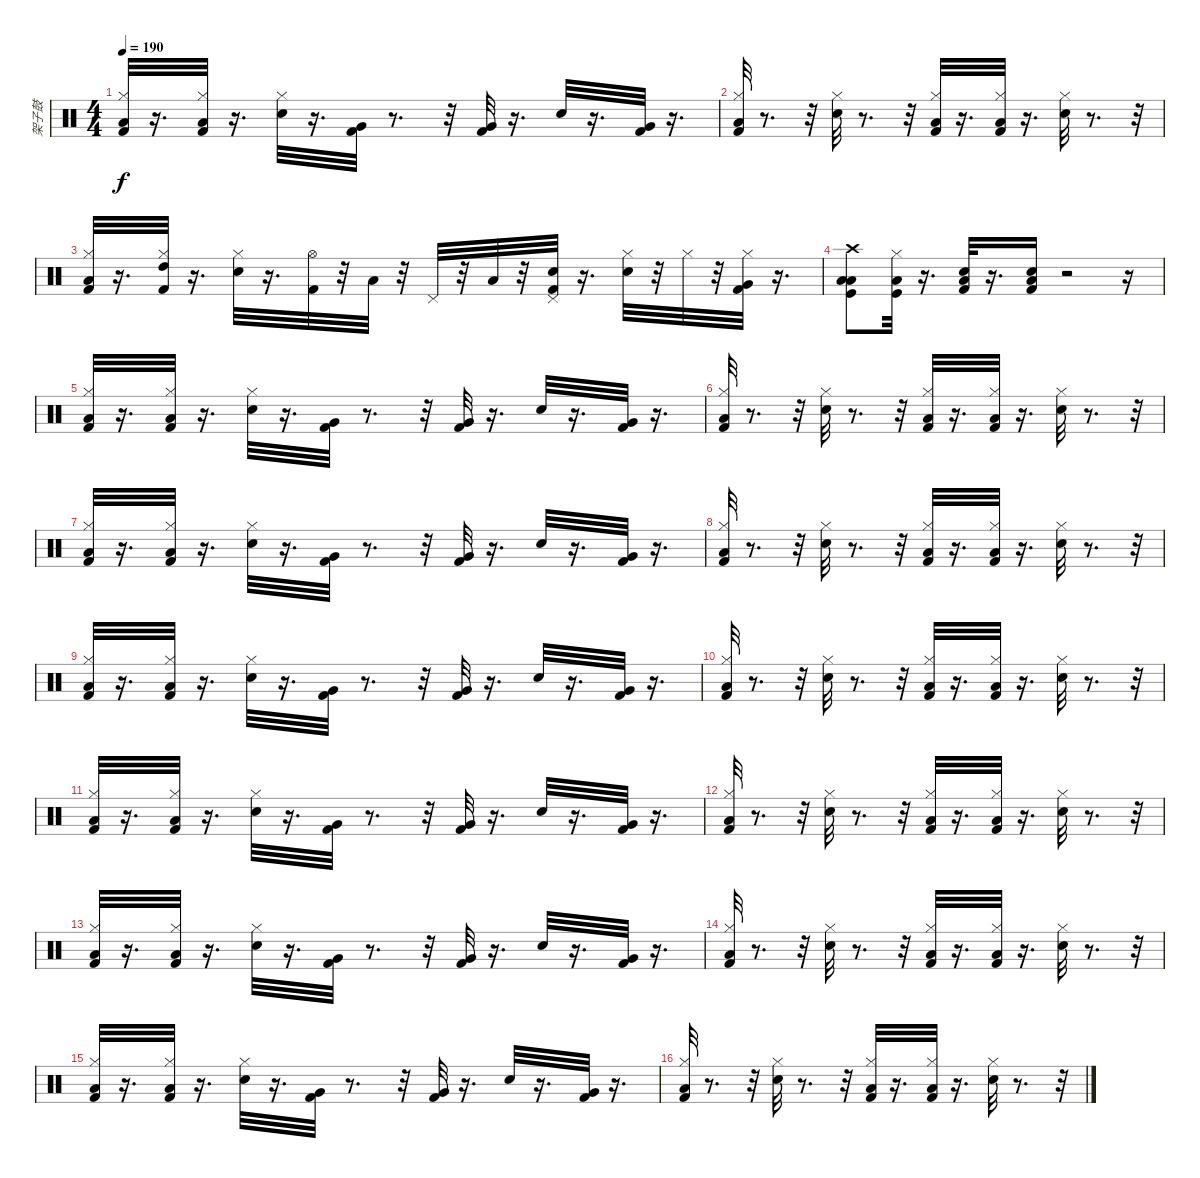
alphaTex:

\track ("架子鼓" "架子鼓") {instrument percussion}
\staff {score}
\articulation defaults
\ts (4 4)
\tempo 190
\clef neutral
\ks c
("Kick (hit) 2" "Hi-Hat (closed)" "Low Floor Tom (hit)").32{dy f} r.16{d} ("Kick (hit) 2" "Hi-Hat (closed)" "Low Floor Tom (hit)").32 r.16{d} ("Hi-Hat (closed)" "Electric Snare (hit)").32 r.16{d} ("Kick (hit) 2" "Very Low Tom (hit)").32 r.8{d} r.32 ("Kick (hit) 2" "Very Low Tom (hit)").32 r.16{d} "Snare (hit) 2".32 r.16{d} ("Kick (hit) 2" "Very Low Tom (hit)").32 r.16{d} |
("Kick (hit) 2" "Hi-Hat (closed)" "Low Floor Tom (hit)").32 r.8{d} r.32 ("Hi-Hat (closed)" "Electric Snare (hit)").32 r.8{d} r.32 ("Kick (hit) 2" "Hi-Hat (closed)" "Low Floor Tom (hit)").32 r.16{d} ("Kick (hit) 2" "Hi-Hat (closed)" "Low Floor Tom (hit)").32 r.16{d} ("Hi-Hat (closed)" "Electric Snare (hit)").32 r.8{d} r.32 |
("Kick (hit) 2" "Hi-Hat (closed)" "Low Floor Tom (hit)").32 r.16{d} ("High Tom (hit)" "Kick (hit) 2" "Hi-Hat (closed)").32 r.16{d} ("Hi-Hat (closed)" "Electric Snare (hit)").32 r.16{d} ("Kick (hit) 2" "Hi-Hat (open)").32 r.32 "Low Floor Tom (hit)".32 r.32 "Pedal Hi-Hat (hit)".32 r.32 "Low Floor Tom (hit)".32 r.32 ("Pedal Hi-Hat (hit)" "Kick (hit) 2" "Snare (hit) 2").32 r.16{d} ("Hi-Hat (closed)" "Snare (hit) 2").32 r.32 "Hi-Hat (closed)".32 r.32 ("Hi-Hat (closed)" "Kick (hit) 2" "Very Low Tom (hit)").32 r.16{d} |
("Low Tom (hit)" "Kick (hit)" "Low Floor Tom (hit)" "Crash high (hit)").8 ("Kick (hit)" "Low Tom (hit)" "Hi-Hat (closed)").32 r.16{d} ("Kick (hit) 2" "Low Tom (hit)" "Electric Snare (hit)").32 r.16{d} ("Kick (hit) 2" "Electric Snare (hit)" "Low Tom (hit)").16 r.2 r.16 |
("Kick (hit) 2" "Hi-Hat (closed)" "Low Floor Tom (hit)").32 r.16{d} ("Kick (hit) 2" "Hi-Hat (closed)" "Low Floor Tom (hit)").32 r.16{d} ("Hi-Hat (closed)" "Electric Snare (hit)").32 r.16{d} ("Kick (hit) 2" "Very Low Tom (hit)").32 r.8{d} r.32 ("Kick (hit) 2" "Very Low Tom (hit)").32 r.16{d} "Snare (hit) 2".32 r.16{d} ("Kick (hit) 2" "Very Low Tom (hit)").32 r.16{d} |
("Kick (hit) 2" "Hi-Hat (closed)" "Low Floor Tom (hit)").32 r.8{d} r.32 ("Hi-Hat (closed)" "Electric Snare (hit)").32 r.8{d} r.32 ("Kick (hit) 2" "Hi-Hat (closed)" "Low Floor Tom (hit)").32 r.16{d} ("Kick (hit) 2" "Hi-Hat (closed)" "Low Floor Tom (hit)").32 r.16{d} ("Hi-Hat (closed)" "Electric Snare (hit)").32 r.8{d} r.32 |
("Kick (hit) 2" "Hi-Hat (closed)" "Low Floor Tom (hit)").32 r.16{d} ("Kick (hit) 2" "Hi-Hat (closed)" "Low Floor Tom (hit)").32 r.16{d} ("Hi-Hat (closed)" "Electric Snare (hit)").32 r.16{d} ("Kick (hit) 2" "Very Low Tom (hit)").32 r.8{d} r.32 ("Kick (hit) 2" "Very Low Tom (hit)").32 r.16{d} "Snare (hit) 2".32 r.16{d} ("Kick (hit) 2" "Very Low Tom (hit)").32 r.16{d} |
("Kick (hit) 2" "Hi-Hat (closed)" "Low Floor Tom (hit)").32 r.8{d} r.32 ("Hi-Hat (closed)" "Electric Snare (hit)").32 r.8{d} r.32 ("Kick (hit) 2" "Hi-Hat (closed)" "Low Floor Tom (hit)").32 r.16{d} ("Kick (hit) 2" "Hi-Hat (closed)" "Low Floor Tom (hit)").32 r.16{d} ("Electric Snare (hit)" "Hi-Hat (closed)").32 r.8{d} r.32 |
("Kick (hit) 2" "Hi-Hat (closed)" "Low Floor Tom (hit)").32 r.16{d} ("Kick (hit) 2" "Hi-Hat (closed)" "Low Floor Tom (hit)").32 r.16{d} ("Hi-Hat (closed)" "Electric Snare (hit)").32 r.16{d} ("Kick (hit) 2" "Very Low Tom (hit)").32 r.8{d} r.32 ("Kick (hit) 2" "Very Low Tom (hit)").32 r.16{d} "Snare (hit) 2".32 r.16{d} ("Kick (hit) 2" "Very Low Tom (hit)").32 r.16{d} |
("Kick (hit) 2" "Hi-Hat (closed)" "Low Floor Tom (hit)").32 r.8{d} r.32 ("Hi-Hat (closed)" "Electric Snare (hit)").32 r.8{d} r.32 ("Kick (hit) 2" "Hi-Hat (closed)" "Low Floor Tom (hit)").32 r.16{d} ("Kick (hit) 2" "Hi-Hat (closed)" "Low Floor Tom (hit)").32 r.16{d} ("Hi-Hat (closed)" "Electric Snare (hit)").32 r.8{d} r.32 |
("Kick (hit) 2" "Hi-Hat (closed)" "Low Floor Tom (hit)").32 r.16{d} ("Kick (hit) 2" "Hi-Hat (closed)" "Low Floor Tom (hit)").32 r.16{d} ("Hi-Hat (closed)" "Electric Snare (hit)").32 r.16{d} ("Kick (hit) 2" "Very Low Tom (hit)").32 r.8{d} r.32 ("Kick (hit) 2" "Very Low Tom (hit)").32 r.16{d} "Snare (hit) 2".32 r.16{d} ("Kick (hit) 2" "Very Low Tom (hit)").32 r.16{d} |
("Kick (hit) 2" "Hi-Hat (closed)" "Low Floor Tom (hit)").32 r.8{d} r.32 ("Hi-Hat (closed)" "Electric Snare (hit)").32 r.8{d} r.32 ("Kick (hit) 2" "Hi-Hat (closed)" "Low Floor Tom (hit)").32 r.16{d} ("Kick (hit) 2" "Hi-Hat (closed)" "Low Floor Tom (hit)").32 r.16{d} ("Hi-Hat (closed)" "Electric Snare (hit)").32 r.8{d} r.32 |
("Kick (hit) 2" "Hi-Hat (closed)" "Low Floor Tom (hit)").32 r.16{d} ("Kick (hit) 2" "Hi-Hat (closed)" "Low Floor Tom (hit)").32 r.16{d} ("Hi-Hat (closed)" "Electric Snare (hit)").32 r.16{d} ("Kick (hit) 2" "Very Low Tom (hit)").32 r.8{d} r.32 ("Kick (hit) 2" "Very Low Tom (hit)").32 r.16{d} "Snare (hit) 2".32 r.16{d} ("Kick (hit) 2" "Very Low Tom (hit)").32 r.16{d} |
("Kick (hit) 2" "Hi-Hat (closed)" "Low Floor Tom (hit)").32 r.8{d} r.32 ("Hi-Hat (closed)" "Electric Snare (hit)").32 r.8{d} r.32 ("Kick (hit) 2" "Hi-Hat (closed)" "Low Floor Tom (hit)").32 r.16{d} ("Kick (hit) 2" "Hi-Hat (closed)" "Low Floor Tom (hit)").32 r.16{d} ("Hi-Hat (closed)" "Electric Snare (hit)").32 r.8{d} r.32 |
("Kick (hit) 2" "Hi-Hat (closed)" "Low Floor Tom (hit)").32 r.16{d} ("Kick (hit) 2" "Hi-Hat (closed)" "Low Floor Tom (hit)").32 r.16{d} ("Hi-Hat (closed)" "Electric Snare (hit)").32 r.16{d} ("Kick (hit) 2" "Very Low Tom (hit)").32 r.8{d} r.32 ("Kick (hit) 2" "Very Low Tom (hit)").32 r.16{d} "Snare (hit) 2".32 r.16{d} ("Kick (hit) 2" "Very Low Tom (hit)").32 r.16{d} |
("Kick (hit) 2" "Hi-Hat (closed)" "Low Floor Tom (hit)").32 r.8{d} r.32 ("Hi-Hat (closed)" "Electric Snare (hit)").32 r.8{d} r.32 ("Kick (hit) 2" "Hi-Hat (closed)" "Low Floor Tom (hit)").32 r.16{d} ("Kick (hit) 2" "Hi-Hat (closed)" "Low Floor Tom (hit)").32 r.16{d} ("Hi-Hat (closed)" "Electric Snare (hit)").32 r.8{d} r.32
